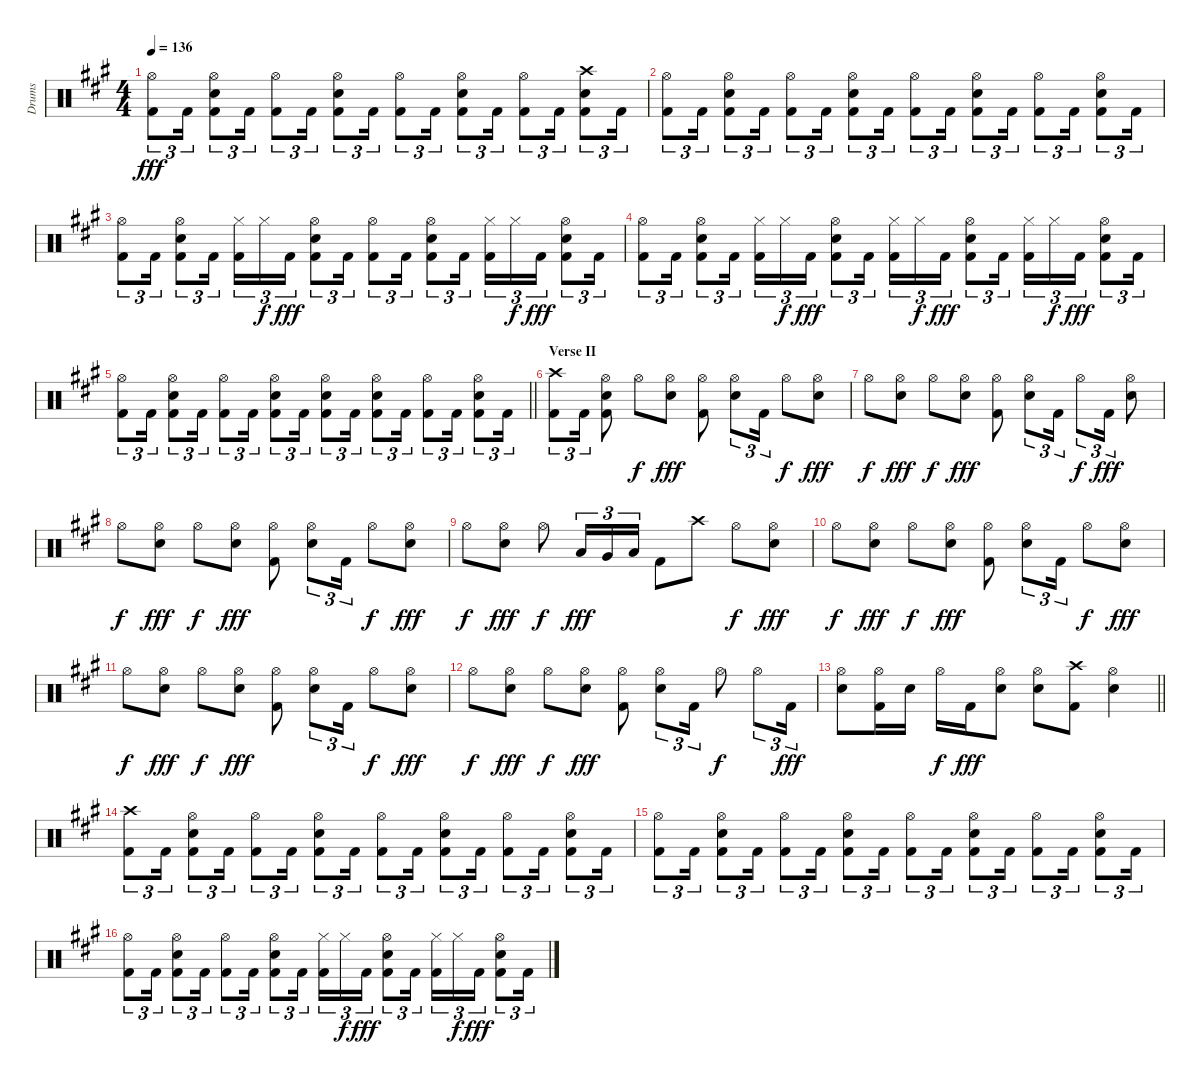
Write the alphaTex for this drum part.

\track ("Drums" "Drums") {instrument percussion}
\staff {score}
\articulation defaults
\ts (4 4)
\tempo 136
\clef neutral
\ks a
("Hi-Hat (open)" "Kick (hit) 2").8{tu (3 2) dy fff} "Kick (hit) 2".16{tu (3 2)} ("Hi-Hat (open)" "Snare (hit) 2" "Kick (hit) 2").8{tu (3 2)} "Kick (hit) 2".16{tu (3 2)} ("Hi-Hat (open)" "Kick (hit) 2").8{tu (3 2)} "Kick (hit) 2".16{tu (3 2)} ("Hi-Hat (open)" "Snare (hit) 2" "Kick (hit) 2").8{tu (3 2)} "Kick (hit) 2".16{tu (3 2)} ("Hi-Hat (open)" "Kick (hit) 2").8{tu (3 2)} "Kick (hit) 2".16{tu (3 2)} ("Hi-Hat (open)" "Snare (hit) 2" "Kick (hit) 2").8{tu (3 2)} "Kick (hit) 2".16{tu (3 2)} ("Hi-Hat (open)" "Kick (hit) 2").8{tu (3 2)} "Kick (hit) 2".16{tu (3 2)} ("Crash high (hit)" "Snare (hit) 2" "Kick (hit) 2").8{tu (3 2)} "Kick (hit) 2".16{tu (3 2)} |
("Hi-Hat (open)" "Kick (hit) 2").8{tu (3 2)} "Kick (hit) 2".16{tu (3 2)} ("Hi-Hat (open)" "Snare (hit) 2" "Kick (hit) 2").8{tu (3 2)} "Kick (hit) 2".16{tu (3 2)} ("Hi-Hat (open)" "Kick (hit) 2").8{tu (3 2)} "Kick (hit) 2".16{tu (3 2)} ("Hi-Hat (open)" "Snare (hit) 2" "Kick (hit) 2").8{tu (3 2)} "Kick (hit) 2".16{tu (3 2)} ("Hi-Hat (open)" "Kick (hit) 2").8{tu (3 2)} "Kick (hit) 2".16{tu (3 2)} ("Hi-Hat (open)" "Snare (hit) 2" "Kick (hit) 2").8{tu (3 2)} "Kick (hit) 2".16{tu (3 2)} ("Hi-Hat (open)" "Kick (hit) 2").8{tu (3 2)} "Kick (hit) 2".16{tu (3 2)} ("Hi-Hat (open)" "Snare (hit) 2" "Kick (hit) 2").8{tu (3 2)} "Kick (hit) 2".16{tu (3 2)} |
("Hi-Hat (open)" "Kick (hit) 2").8{tu (3 2)} "Kick (hit) 2".16{tu (3 2)} ("Hi-Hat (open)" "Snare (hit) 2" "Kick (hit) 2").8{tu (3 2)} "Kick (hit) 2".16{tu (3 2)} ("Hi-Hat (closed)" "Kick (hit) 2").16{tu (3 2)} "Hi-Hat (closed)".16{tu (3 2) dy f} "Kick (hit) 2".16{tu (3 2) dy fff} ("Hi-Hat (open)" "Snare (hit) 2" "Kick (hit) 2").8{tu (3 2)} "Kick (hit) 2".16{tu (3 2)} ("Hi-Hat (open)" "Kick (hit) 2").8{tu (3 2)} "Kick (hit) 2".16{tu (3 2)} ("Hi-Hat (open)" "Snare (hit) 2" "Kick (hit) 2").8{tu (3 2)} "Kick (hit) 2".16{tu (3 2)} ("Hi-Hat (closed)" "Kick (hit) 2").16{tu (3 2)} "Hi-Hat (closed)".16{tu (3 2) dy f} "Kick (hit) 2".16{tu (3 2) dy fff} ("Hi-Hat (open)" "Snare (hit) 2" "Kick (hit) 2").8{tu (3 2)} "Kick (hit) 2".16{tu (3 2)} |
("Hi-Hat (open)" "Kick (hit) 2").8{tu (3 2)} "Kick (hit) 2".16{tu (3 2)} ("Hi-Hat (open)" "Snare (hit) 2" "Kick (hit) 2").8{tu (3 2)} "Kick (hit) 2".16{tu (3 2)} ("Hi-Hat (closed)" "Kick (hit) 2").16{tu (3 2)} "Hi-Hat (closed)".16{tu (3 2) dy f} "Kick (hit) 2".16{tu (3 2) dy fff} ("Hi-Hat (open)" "Snare (hit) 2" "Kick (hit) 2").8{tu (3 2)} "Kick (hit) 2".16{tu (3 2)} ("Hi-Hat (closed)" "Kick (hit) 2").16{tu (3 2)} "Hi-Hat (closed)".16{tu (3 2) dy f} "Kick (hit) 2".16{tu (3 2) dy fff} ("Hi-Hat (open)" "Snare (hit) 2" "Kick (hit) 2").8{tu (3 2)} "Kick (hit) 2".16{tu (3 2)} ("Hi-Hat (closed)" "Kick (hit) 2").16{tu (3 2)} "Hi-Hat (closed)".16{tu (3 2) dy f} "Kick (hit) 2".16{tu (3 2) dy fff} ("Hi-Hat (open)" "Snare (hit) 2" "Kick (hit) 2").8{tu (3 2)} "Kick (hit) 2".16{tu (3 2)} |
\barLineRight lightlight
("Hi-Hat (open)" "Kick (hit) 2").8{tu (3 2)} "Kick (hit) 2".16{tu (3 2)} ("Hi-Hat (open)" "Snare (hit) 2" "Kick (hit) 2").8{tu (3 2)} "Kick (hit) 2".16{tu (3 2)} ("Hi-Hat (open)" "Kick (hit) 2").8{tu (3 2)} "Kick (hit) 2".16{tu (3 2)} ("Hi-Hat (open)" "Snare (hit) 2" "Kick (hit) 2").8{tu (3 2)} "Kick (hit) 2".16{tu (3 2)} ("Hi-Hat (open)" "Snare (hit) 2" "Kick (hit) 2").8{tu (3 2)} "Kick (hit) 2".16{tu (3 2)} ("Hi-Hat (open)" "Snare (hit) 2" "Kick (hit) 2").8{tu (3 2)} "Kick (hit) 2".16{tu (3 2)} ("Hi-Hat (open)" "Kick (hit) 2").8{tu (3 2)} "Kick (hit) 2".16{tu (3 2)} ("Hi-Hat (open)" "Snare (hit) 2" "Kick (hit) 2").8{tu (3 2)} "Kick (hit) 2".16{tu (3 2)} |
\section ("" "Verse II")
("Crash high (hit)" "Kick (hit) 2").8{tu (3 2)} "Kick (hit) 2".16{tu (3 2)} ("Hi-Hat (open)" "Snare (hit) 2" "Kick (hit) 2").8 "Hi-Hat (open)".8{dy f} ("Hi-Hat (open)" "Snare (hit) 2").8{dy fff} ("Hi-Hat (open)" "Kick (hit) 2").8 ("Hi-Hat (open)" "Snare (hit) 2").8{tu (3 2)} "Kick (hit) 2".16{tu (3 2)} "Hi-Hat (open)".8{dy f} ("Hi-Hat (open)" "Snare (hit) 2").8{dy fff} |
"Hi-Hat (open)".8{dy f} ("Hi-Hat (open)" "Snare (hit) 2").8{dy fff} "Hi-Hat (open)".8{dy f} ("Hi-Hat (open)" "Snare (hit) 2").8{dy fff} ("Hi-Hat (open)" "Kick (hit) 2").8 ("Hi-Hat (open)" "Snare (hit) 2").8{tu (3 2)} "Kick (hit) 2".16{tu (3 2)} "Hi-Hat (open)".8{tu (3 2) dy f} "Kick (hit) 2".16{tu (3 2) dy fff} ("Hi-Hat (open)" "Snare (hit) 2").8 |
"Hi-Hat (open)".8{dy f} ("Hi-Hat (open)" "Snare (hit) 2").8{dy fff} "Hi-Hat (open)".8{dy f} ("Hi-Hat (open)" "Snare (hit) 2").8{dy fff} ("Hi-Hat (open)" "Kick (hit) 2").8 ("Hi-Hat (open)" "Snare (hit) 2").8{tu (3 2)} "Kick (hit) 2".16{tu (3 2)} "Hi-Hat (open)".8{dy f} ("Hi-Hat (open)" "Snare (hit) 2").8{dy fff} |
"Hi-Hat (open)".8{dy f} ("Hi-Hat (open)" "Snare (hit) 2").8{dy fff} "Hi-Hat (open)".8{dy f} "Low Tom (hit)".16{tu (3 2) dy fff} "Very Low Tom (hit)".16{tu (3 2)} "Low Floor Tom (hit)".16{tu (3 2)} "Kick (hit) 2".8 "Crash high (hit)".8 "Hi-Hat (open)".8{dy f} ("Hi-Hat (open)" "Snare (hit) 2").8{dy fff} |
"Hi-Hat (open)".8{dy f} ("Hi-Hat (open)" "Snare (hit) 2").8{dy fff} "Hi-Hat (open)".8{dy f} ("Hi-Hat (open)" "Snare (hit) 2").8{dy fff} ("Hi-Hat (open)" "Kick (hit) 2").8 ("Hi-Hat (open)" "Snare (hit) 2").8{tu (3 2)} "Kick (hit) 2".16{tu (3 2)} "Hi-Hat (open)".8{dy f} ("Hi-Hat (open)" "Snare (hit) 2").8{dy fff} |
"Hi-Hat (open)".8{dy f} ("Hi-Hat (open)" "Snare (hit) 2").8{dy fff} "Hi-Hat (open)".8{dy f} ("Hi-Hat (open)" "Snare (hit) 2").8{dy fff} ("Hi-Hat (open)" "Kick (hit) 2").8 ("Hi-Hat (open)" "Snare (hit) 2").8{tu (3 2)} "Kick (hit) 2".16{tu (3 2)} "Hi-Hat (open)".8{dy f} ("Hi-Hat (open)" "Snare (hit) 2").8{dy fff} |
"Hi-Hat (open)".8{dy f} ("Hi-Hat (open)" "Snare (hit) 2").8{dy fff} "Hi-Hat (open)".8{dy f} ("Hi-Hat (open)" "Snare (hit) 2").8{dy fff} ("Hi-Hat (open)" "Kick (hit) 2").8 ("Hi-Hat (open)" "Snare (hit) 2").8{tu (3 2)} "Kick (hit) 2".16{tu (3 2)} "Hi-Hat (open)".8{dy f} "Hi-Hat (open)".8{tu (3 2)} "Kick (hit) 2".16{tu (3 2) dy fff} |
\barLineRight lightlight
("Hi-Hat (open)" "Snare (hit) 2").8 ("Hi-Hat (open)" "Kick (hit) 2").16 "Snare (hit) 2".16 "Hi-Hat (open)".16{dy f} "Kick (hit) 2".16{dy fff} ("Hi-Hat (open)" "Snare (hit) 2").8 ("Hi-Hat (open)" "Snare (hit) 2").8 ("Crash high (hit)" "Kick (hit) 2").8 ("Hi-Hat (open)" "Snare (hit) 2").4 |
("Crash high (hit)" "Kick (hit) 2").8{tu (3 2)} "Kick (hit) 2".16{tu (3 2)} ("Hi-Hat (open)" "Snare (hit) 2" "Kick (hit) 2").8{tu (3 2)} "Kick (hit) 2".16{tu (3 2)} ("Hi-Hat (open)" "Kick (hit) 2").8{tu (3 2)} "Kick (hit) 2".16{tu (3 2)} ("Hi-Hat (open)" "Snare (hit) 2" "Kick (hit) 2").8{tu (3 2)} "Kick (hit) 2".16{tu (3 2)} ("Hi-Hat (open)" "Kick (hit) 2").8{tu (3 2)} "Kick (hit) 2".16{tu (3 2)} ("Hi-Hat (open)" "Snare (hit) 2" "Kick (hit) 2").8{tu (3 2)} "Kick (hit) 2".16{tu (3 2)} ("Hi-Hat (open)" "Kick (hit) 2").8{tu (3 2)} "Kick (hit) 2".16{tu (3 2)} ("Hi-Hat (open)" "Snare (hit) 2" "Kick (hit) 2").8{tu (3 2)} "Kick (hit) 2".16{tu (3 2)} |
("Hi-Hat (open)" "Kick (hit) 2").8{tu (3 2)} "Kick (hit) 2".16{tu (3 2)} ("Hi-Hat (open)" "Snare (hit) 2" "Kick (hit) 2").8{tu (3 2)} "Kick (hit) 2".16{tu (3 2)} ("Hi-Hat (open)" "Kick (hit) 2").8{tu (3 2)} "Kick (hit) 2".16{tu (3 2)} ("Hi-Hat (open)" "Snare (hit) 2" "Kick (hit) 2").8{tu (3 2)} "Kick (hit) 2".16{tu (3 2)} ("Hi-Hat (open)" "Kick (hit) 2").8{tu (3 2)} "Kick (hit) 2".16{tu (3 2)} ("Hi-Hat (open)" "Snare (hit) 2" "Kick (hit) 2").8{tu (3 2)} "Kick (hit) 2".16{tu (3 2)} ("Hi-Hat (open)" "Kick (hit) 2").8{tu (3 2)} "Kick (hit) 2".16{tu (3 2)} ("Hi-Hat (open)" "Snare (hit) 2" "Kick (hit) 2").8{tu (3 2)} "Kick (hit) 2".16{tu (3 2)} |
("Hi-Hat (open)" "Kick (hit) 2").8{tu (3 2)} "Kick (hit) 2".16{tu (3 2)} ("Hi-Hat (open)" "Snare (hit) 2" "Kick (hit) 2").8{tu (3 2)} "Kick (hit) 2".16{tu (3 2)} ("Hi-Hat (open)" "Kick (hit) 2").8{tu (3 2)} "Kick (hit) 2".16{tu (3 2)} ("Hi-Hat (open)" "Snare (hit) 2" "Kick (hit) 2").8{tu (3 2)} "Kick (hit) 2".16{tu (3 2)} ("Hi-Hat (closed)" "Kick (hit) 2").16{tu (3 2)} "Hi-Hat (closed)".16{tu (3 2) dy f} "Kick (hit) 2".16{tu (3 2) dy fff} ("Hi-Hat (open)" "Snare (hit) 2" "Kick (hit) 2").8{tu (3 2)} "Kick (hit) 2".16{tu (3 2)} ("Hi-Hat (closed)" "Kick (hit) 2").16{tu (3 2)} "Hi-Hat (closed)".16{tu (3 2) dy f} "Kick (hit) 2".16{tu (3 2) dy fff} ("Hi-Hat (open)" "Snare (hit) 2" "Kick (hit) 2").8{tu (3 2)} "Kick (hit) 2".16{tu (3 2)}
